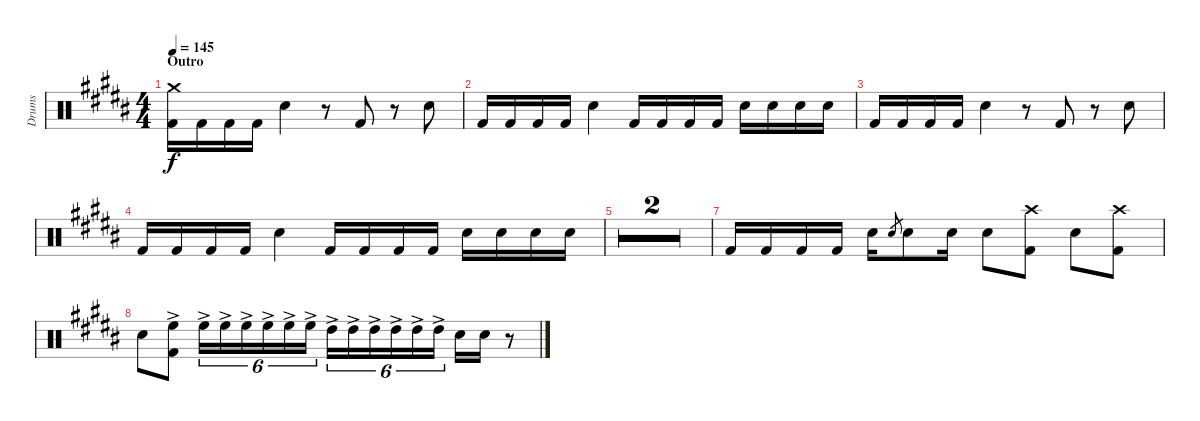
\defaultSystemsLayout 4
\bracketExtendMode groupsimilarinstruments
\otherSystemsTrackNameOrientation horizontal
\track ("Drumkit" "Drums") {multiBarRest instrument percussion}
\staff {score}
\articulation defaults
\ts (4 4)
\section ("" "Outro")
\tempo 145
\clef neutral
\ks b
("Kick (hit) 2"{acc forcenatural} "Crash medium (hit)"{acc forcenatural}).16{dy f} "Kick (hit) 2"{acc forcenatural}.16 "Kick (hit) 2"{acc forcenatural}.16 "Kick (hit) 2"{acc forcenatural}.16 "Snare (hit) 2"{acc forcenatural}.4 r.8 "Kick (hit) 2"{acc forcenatural}.8 r.8 "Snare (hit) 2"{acc forcenatural}.8 |
"Kick (hit) 2"{acc forcenatural}.16 "Kick (hit) 2"{acc forcenatural}.16 "Kick (hit) 2"{acc forcenatural}.16 "Kick (hit) 2"{acc forcenatural}.16 "Snare (hit) 2"{acc forcenatural}.4 "Kick (hit) 2"{acc forcenatural}.16 "Kick (hit) 2"{acc forcenatural}.16 "Kick (hit) 2"{acc forcenatural}.16 "Kick (hit) 2"{acc forcenatural}.16 "Snare (hit) 2"{acc forcenatural}.16 "Snare (hit) 2"{acc forcenatural}.16 "Snare (hit) 2"{acc forcenatural}.16 "Snare (hit) 2"{acc forcenatural}.16 |
"Kick (hit) 2"{acc forcenatural}.16 "Kick (hit) 2"{acc forcenatural}.16 "Kick (hit) 2"{acc forcenatural}.16 "Kick (hit) 2"{acc forcenatural}.16 "Snare (hit) 2"{acc forcenatural}.4 r.8 "Kick (hit) 2"{acc forcenatural}.8 r.8 "Snare (hit) 2"{acc forcenatural}.8 |
"Kick (hit) 2"{acc forcenatural}.16 "Kick (hit) 2"{acc forcenatural}.16 "Kick (hit) 2"{acc forcenatural}.16 "Kick (hit) 2"{acc forcenatural}.16 "Snare (hit) 2"{acc forcenatural}.4 "Kick (hit) 2"{acc forcenatural}.16 "Kick (hit) 2"{acc forcenatural}.16 "Kick (hit) 2"{acc forcenatural}.16 "Kick (hit) 2"{acc forcenatural}.16 "Snare (hit) 2"{acc forcenatural}.16 "Snare (hit) 2"{acc forcenatural}.16 "Snare (hit) 2"{acc forcenatural}.16 "Snare (hit) 2"{acc forcenatural}.16 |
\simile firstofdouble
|
\simile secondofdouble
|
\simile none "Kick (hit) 2"{acc forcenatural}.16 "Kick (hit) 2"{acc forcenatural}.16 "Kick (hit) 2"{acc forcenatural}.16 "Kick (hit) 2"{acc forcenatural}.16 "Snare (hit) 2"{acc forcenatural}.16 "Snare (hit) 2"{acc forcenatural}.8{gr} "Snare (hit) 2"{acc forcenatural}.8 "Snare (hit) 2"{acc forcenatural}.16 "Snare (hit) 2"{acc forcenatural}.8
("Kick (hit) 2"{acc forcenatural} "Crash high (hit)"{acc forcenatural}).8 "Snare (hit) 2"{acc forcenatural}.8 ("Kick (hit) 2"{acc forcenatural} "Crash high (hit)"{acc forcenatural}).8 |
"Snare (hit) 2"{acc forcenatural}.8 ("High Floor Tom (hit)"{ac acc forcenatural} "Kick (hit) 2"{acc forcenatural}).8 "High Floor Tom (hit)"{ac acc forcenatural}.16{tu (6 4)} "High Floor Tom (hit)"{ac acc forcenatural}.16{tu (6 4)} "High Floor Tom (hit)"{ac acc forcenatural}.16{tu (6 4)} "High Floor Tom (hit)"{ac acc forcenatural}.16{tu (6 4)} "High Floor Tom (hit)"{ac acc forcenatural}.16{tu (6 4)} "High Floor Tom (hit)"{ac acc forcenatural}.16{tu (6 4)} "High Tom (hit)"{ac acc forcenatural}.16{tu (6 4)} "High Tom (hit)"{ac acc forcenatural}.16{tu (6 4)} "High Tom (hit)"{ac acc forcenatural}.16{tu (6 4)} "High Tom (hit)"{ac acc forcenatural}.16{tu (6 4)} "High Tom (hit)"{ac acc forcenatural}.16{tu (6 4)} "High Tom (hit)"{ac acc forcenatural}.16{tu (6 4)} "Snare (hit) 2"{acc forcenatural}.16 "Snare (hit) 2"{acc forcenatural}.16 r.8
